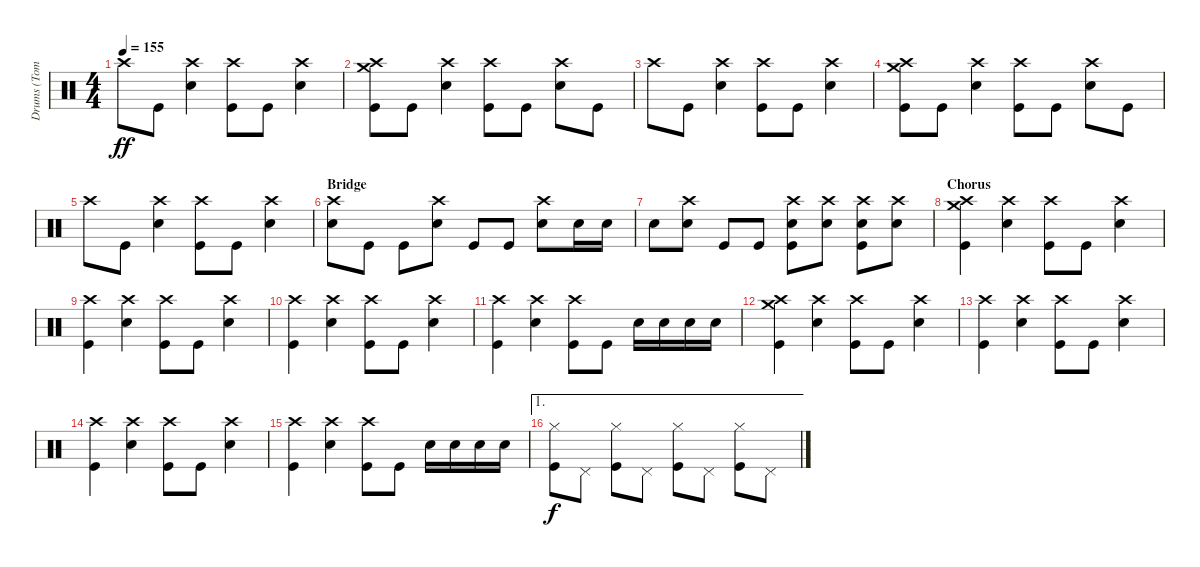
\track ("Drums (Tommy Decker)" "Drums (Tom") {instrument percussion}
\staff {score}
\articulation defaults
\ts (4 4)
\tempo 155
\clef neutral
\ks c "Crash high (hit)".8{dy ff} "Kick (hit)".8
("Crash high (hit)" "Snare (hit) 2").4 ("Crash high (hit)" "Kick (hit)").8 "Kick (hit)".8 ("Crash high (hit)" "Snare (hit) 2").4 |
("Crash high (hit)" "Crash medium (hit)" "Kick (hit)").8 "Kick (hit)".8 ("Crash high (hit)" "Snare (hit) 2").4 ("Crash high (hit)" "Kick (hit)").8 "Kick (hit)".8 ("Crash high (hit)" "Snare (hit) 2").8 "Kick (hit)".8 |
"Crash high (hit)".8 "Kick (hit)".8 ("Crash high (hit)" "Snare (hit) 2").4 ("Crash high (hit)" "Kick (hit)").8 "Kick (hit)".8 ("Crash high (hit)" "Snare (hit) 2").4 |
("Crash high (hit)" "Crash medium (hit)" "Kick (hit)").8 "Kick (hit)".8 ("Crash high (hit)" "Snare (hit) 2").4 ("Crash high (hit)" "Kick (hit)").8 "Kick (hit)".8 ("Crash high (hit)" "Snare (hit) 2").8 "Kick (hit)".8 |
"Crash high (hit)".8 "Kick (hit)".8 ("Crash high (hit)" "Snare (hit) 2").4 ("Crash high (hit)" "Kick (hit)").8 "Kick (hit)".8 ("Crash high (hit)" "Snare (hit) 2").4 |
\section ("" "Bridge")
("Crash high (hit)" "Snare (hit) 2").8 "Kick (hit)".8 "Kick (hit)".8 ("Crash high (hit)" "Snare (hit) 2").8 "Kick (hit)".8 "Kick (hit)".8 ("Crash high (hit)" "Snare (hit) 2").8 "Snare (hit) 2".16 "Snare (hit) 2".16 |
"Snare (hit) 2".8 ("Crash high (hit)" "Snare (hit) 2").8 "Kick (hit)".8 "Kick (hit)".8 ("Crash high (hit)" "Snare (hit) 2" "Kick (hit)").8 ("Crash high (hit)" "Snare (hit) 2").8 ("Crash high (hit)" "Snare (hit) 2" "Kick (hit)").8 ("Crash high (hit)" "Snare (hit) 2").8 |
\section ("" "Chorus")
("Crash high (hit)" "Crash medium (hit)" "Kick (hit)").4 ("Crash high (hit)" "Snare (hit) 2").4 ("Crash high (hit)" "Kick (hit)").8 "Kick (hit)".8 ("Crash high (hit)" "Snare (hit) 2").4 |
("Crash high (hit)" "Kick (hit)").4 ("Crash high (hit)" "Snare (hit) 2").4 ("Crash high (hit)" "Kick (hit)").8 "Kick (hit)".8 ("Crash high (hit)" "Snare (hit) 2").4 |
("Crash high (hit)" "Kick (hit)").4 ("Crash high (hit)" "Snare (hit) 2").4 ("Crash high (hit)" "Kick (hit)").8 "Kick (hit)".8 ("Crash high (hit)" "Snare (hit) 2").4 |
("Crash high (hit)" "Kick (hit)").4 ("Crash high (hit)" "Snare (hit) 2").4 ("Crash high (hit)" "Kick (hit)").8 "Kick (hit)".8 "Snare (hit) 2".16 "Snare (hit) 2".16 "Snare (hit) 2".16 "Snare (hit) 2".16 |
("Crash high (hit)" "Crash medium (hit)" "Kick (hit)").4 ("Crash high (hit)" "Snare (hit) 2").4 ("Crash high (hit)" "Kick (hit)").8 "Kick (hit)".8 ("Crash high (hit)" "Snare (hit) 2").4 |
("Crash high (hit)" "Kick (hit)").4 ("Crash high (hit)" "Snare (hit) 2").4 ("Crash high (hit)" "Kick (hit)").8 "Kick (hit)".8 ("Crash high (hit)" "Snare (hit) 2").4 |
("Crash high (hit)" "Kick (hit)").4 ("Crash high (hit)" "Snare (hit) 2").4 ("Crash high (hit)" "Kick (hit)").8 "Kick (hit)".8 ("Crash high (hit)" "Snare (hit) 2").4 |
("Crash high (hit)" "Kick (hit)").4 ("Crash high (hit)" "Snare (hit) 2").4 ("Crash high (hit)" "Kick (hit)").8 "Kick (hit)".8 "Snare (hit) 2".16 "Snare (hit) 2".16 "Snare (hit) 2".16 "Snare (hit) 2".16 |
\ae 1
("Hi-Hat (closed)" "Kick (hit)").8{dy f} "Pedal Hi-Hat (hit)".8 ("Hi-Hat (closed)" "Kick (hit)").8 "Pedal Hi-Hat (hit)".8 ("Hi-Hat (closed)" "Kick (hit)").8 "Pedal Hi-Hat (hit)".8 ("Hi-Hat (closed)" "Kick (hit)").8 "Pedal Hi-Hat (hit)".8
